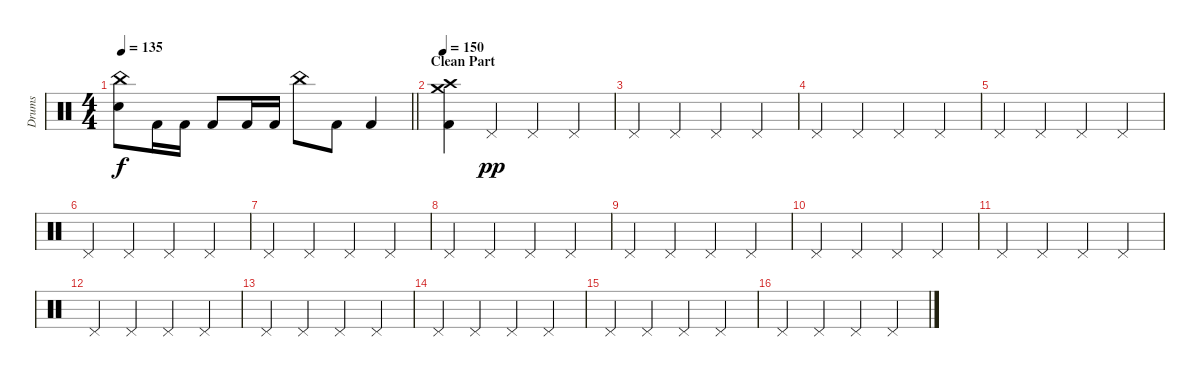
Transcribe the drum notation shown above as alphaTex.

\track ("Drums" "Drums") {instrument percussion}
\staff {score}
\articulation defaults
\ts (4 4)
\tempo 135
\clef neutral
\barLineRight lightlight
\ks c
("China (hit)" "Snare (hit) 2").8{dy f} "Kick (hit) 2".16 "Kick (hit) 2".16 "Kick (hit) 2".8 "Kick (hit) 2".16 "Kick (hit) 2".16 "China (hit)".8 "Kick (hit) 2".8 "Kick (hit) 2".4 |
\section ("" "Clean Part")
\tempo 135
\tempo 150
("Crash medium (hit)" "Crash high (hit)" "Kick (hit) 2").4 "Pedal Hi-Hat (hit)".4{dy pp} "Pedal Hi-Hat (hit)".4 "Pedal Hi-Hat (hit)".4 |
"Pedal Hi-Hat (hit)".4 "Pedal Hi-Hat (hit)".4 "Pedal Hi-Hat (hit)".4 "Pedal Hi-Hat (hit)".4 |
"Pedal Hi-Hat (hit)".4 "Pedal Hi-Hat (hit)".4 "Pedal Hi-Hat (hit)".4 "Pedal Hi-Hat (hit)".4 |
"Pedal Hi-Hat (hit)".4 "Pedal Hi-Hat (hit)".4 "Pedal Hi-Hat (hit)".4 "Pedal Hi-Hat (hit)".4 |
"Pedal Hi-Hat (hit)".4 "Pedal Hi-Hat (hit)".4 "Pedal Hi-Hat (hit)".4 "Pedal Hi-Hat (hit)".4 |
"Pedal Hi-Hat (hit)".4 "Pedal Hi-Hat (hit)".4 "Pedal Hi-Hat (hit)".4 "Pedal Hi-Hat (hit)".4 |
"Pedal Hi-Hat (hit)".4 "Pedal Hi-Hat (hit)".4 "Pedal Hi-Hat (hit)".4 "Pedal Hi-Hat (hit)".4 |
"Pedal Hi-Hat (hit)".4 "Pedal Hi-Hat (hit)".4 "Pedal Hi-Hat (hit)".4 "Pedal Hi-Hat (hit)".4 |
"Pedal Hi-Hat (hit)".4 "Pedal Hi-Hat (hit)".4 "Pedal Hi-Hat (hit)".4 "Pedal Hi-Hat (hit)".4 |
"Pedal Hi-Hat (hit)".4 "Pedal Hi-Hat (hit)".4 "Pedal Hi-Hat (hit)".4 "Pedal Hi-Hat (hit)".4 |
"Pedal Hi-Hat (hit)".4 "Pedal Hi-Hat (hit)".4 "Pedal Hi-Hat (hit)".4 "Pedal Hi-Hat (hit)".4 |
"Pedal Hi-Hat (hit)".4 "Pedal Hi-Hat (hit)".4 "Pedal Hi-Hat (hit)".4 "Pedal Hi-Hat (hit)".4 |
"Pedal Hi-Hat (hit)".4 "Pedal Hi-Hat (hit)".4 "Pedal Hi-Hat (hit)".4 "Pedal Hi-Hat (hit)".4 |
"Pedal Hi-Hat (hit)".4 "Pedal Hi-Hat (hit)".4 "Pedal Hi-Hat (hit)".4 "Pedal Hi-Hat (hit)".4 |
"Pedal Hi-Hat (hit)".4 "Pedal Hi-Hat (hit)".4 "Pedal Hi-Hat (hit)".4 "Pedal Hi-Hat (hit)".4
